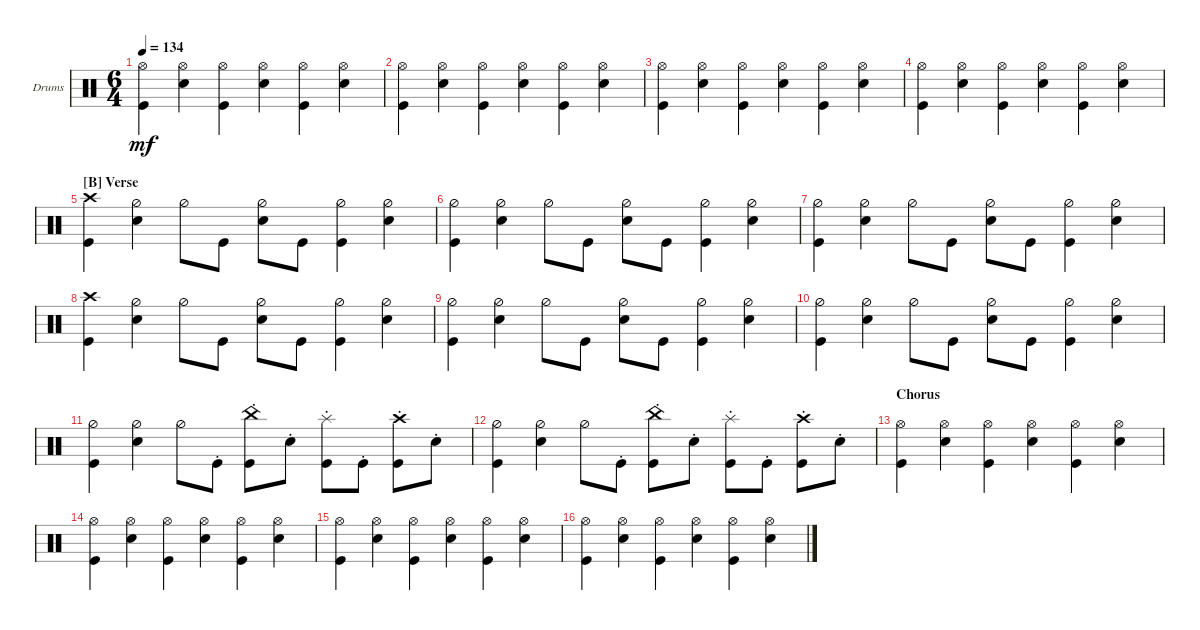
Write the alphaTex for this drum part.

\defaultSystemsLayout 4
\bracketExtendMode groupsimilarinstruments
\firstSystemTrackNameOrientation horizontal
\otherSystemsTrackNameOrientation horizontal
\track ("Drumkit" "Drums") {instrument percussion}
\staff {score}
\articulation defaults
\ts (6 4)
\tempo 134
\clef neutral
\ks c
("Kick (hit)" "Hi-Hat (open)").4{dy mf} ("Snare (hit) 2" "Hi-Hat (open)").4 ("Kick (hit)" "Hi-Hat (open)").4 ("Snare (hit) 2" "Hi-Hat (open)").4 ("Kick (hit)" "Hi-Hat (open)").4 ("Snare (hit) 2" "Hi-Hat (open)").4 |
("Kick (hit)" "Hi-Hat (open)").4 ("Snare (hit) 2" "Hi-Hat (open)").4 ("Kick (hit)" "Hi-Hat (open)").4 ("Snare (hit) 2" "Hi-Hat (open)").4 ("Kick (hit)" "Hi-Hat (open)").4 ("Snare (hit) 2" "Hi-Hat (open)").4 |
("Kick (hit)" "Hi-Hat (open)").4 ("Snare (hit) 2" "Hi-Hat (open)").4 ("Kick (hit)" "Hi-Hat (open)").4 ("Snare (hit) 2" "Hi-Hat (open)").4 ("Kick (hit)" "Hi-Hat (open)").4 ("Snare (hit) 2" "Hi-Hat (open)").4 |
("Kick (hit)" "Hi-Hat (open)").4 ("Snare (hit) 2" "Hi-Hat (open)").4 ("Kick (hit)" "Hi-Hat (open)").4 ("Snare (hit) 2" "Hi-Hat (open)").4 ("Kick (hit)" "Hi-Hat (open)").4 ("Snare (hit) 2" "Hi-Hat (open)").4 |
\section ("B" "Verse")
("Kick (hit)" "Crash high (hit)").4 ("Snare (hit) 2" "Hi-Hat (half)").4 "Hi-Hat (half)".8 "Kick (hit)".8 ("Snare (hit) 2" "Hi-Hat (half)").8 "Kick (hit)".8 ("Kick (hit)" "Hi-Hat (half)").4 ("Snare (hit) 2" "Hi-Hat (half)").4 |
("Kick (hit)" "Hi-Hat (half)").4 ("Snare (hit) 2" "Hi-Hat (half)").4 "Hi-Hat (half)".8 "Kick (hit)".8 ("Snare (hit) 2" "Hi-Hat (half)").8 "Kick (hit)".8 ("Kick (hit)" "Hi-Hat (half)").4 ("Snare (hit) 2" "Hi-Hat (half)").4 |
("Kick (hit)" "Hi-Hat (half)").4 ("Snare (hit) 2" "Hi-Hat (half)").4 "Hi-Hat (half)".8 "Kick (hit)".8 ("Snare (hit) 2" "Hi-Hat (half)").8 "Kick (hit)".8 ("Kick (hit)" "Hi-Hat (half)").4 ("Snare (hit) 2" "Hi-Hat (half)").4 |
("Kick (hit)" "Crash high (hit)").4 ("Snare (hit) 2" "Hi-Hat (half)").4 "Hi-Hat (half)".8 "Kick (hit)".8 ("Snare (hit) 2" "Hi-Hat (half)").8 "Kick (hit)".8 ("Kick (hit)" "Hi-Hat (half)").4 ("Snare (hit) 2" "Hi-Hat (half)").4 |
("Kick (hit)" "Hi-Hat (half)").4 ("Snare (hit) 2" "Hi-Hat (half)").4 "Hi-Hat (half)".8 "Kick (hit)".8 ("Snare (hit) 2" "Hi-Hat (half)").8 "Kick (hit)".8 ("Kick (hit)" "Hi-Hat (half)").4 ("Snare (hit) 2" "Hi-Hat (half)").4 |
("Kick (hit)" "Hi-Hat (half)").4 ("Snare (hit) 2" "Hi-Hat (half)").4 "Hi-Hat (half)".8 "Kick (hit)".8 ("Snare (hit) 2" "Hi-Hat (half)").8 "Kick (hit)".8 ("Kick (hit)" "Hi-Hat (half)").4 ("Snare (hit) 2" "Hi-Hat (half)").4 |
("Kick (hit)" "Hi-Hat (half)").4 ("Snare (hit) 2" "Hi-Hat (half)").4 "Hi-Hat (half)".8 "Kick (hit)"{st}.8 ("Kick (hit)"{st} "China (hit)").8 "Snare (hit) 2"{st}.8 ("Kick (hit)"{st} "Splash (hit)").8 "Kick (hit)"{st}.8 ("Kick (hit)"{st} "Crash high (hit)").8 "Snare (hit) 2"{st}.8 |
("Kick (hit)" "Hi-Hat (half)").4 ("Snare (hit) 2" "Hi-Hat (half)").4 "Hi-Hat (half)".8 "Kick (hit)"{st}.8 ("Kick (hit)"{st} "China (hit)").8 "Snare (hit) 2"{st}.8 ("Kick (hit)"{st} "Splash (hit)").8 "Kick (hit)"{st}.8 ("Kick (hit)"{st} "Crash high (hit)").8 "Snare (hit) 2"{st}.8 |
\section ("" "Chorus")
("Kick (hit)" "Hi-Hat (open)").4 ("Snare (hit) 2" "Hi-Hat (open)").4 ("Kick (hit)" "Hi-Hat (open)").4 ("Snare (hit) 2" "Hi-Hat (open)").4 ("Kick (hit)" "Hi-Hat (open)").4 ("Snare (hit) 2" "Hi-Hat (open)").4 |
("Kick (hit)" "Hi-Hat (open)").4 ("Snare (hit) 2" "Hi-Hat (open)").4 ("Kick (hit)" "Hi-Hat (open)").4 ("Snare (hit) 2" "Hi-Hat (open)").4 ("Kick (hit)" "Hi-Hat (open)").4 ("Snare (hit) 2" "Hi-Hat (open)").4 |
("Kick (hit)" "Hi-Hat (open)").4 ("Snare (hit) 2" "Hi-Hat (open)").4 ("Kick (hit)" "Hi-Hat (open)").4 ("Snare (hit) 2" "Hi-Hat (open)").4 ("Kick (hit)" "Hi-Hat (open)").4 ("Snare (hit) 2" "Hi-Hat (open)").4 |
("Kick (hit)" "Hi-Hat (open)").4 ("Snare (hit) 2" "Hi-Hat (open)").4 ("Kick (hit)" "Hi-Hat (open)").4 ("Snare (hit) 2" "Hi-Hat (open)").4 ("Kick (hit)" "Hi-Hat (open)").4 ("Snare (hit) 2" "Hi-Hat (open)").4
